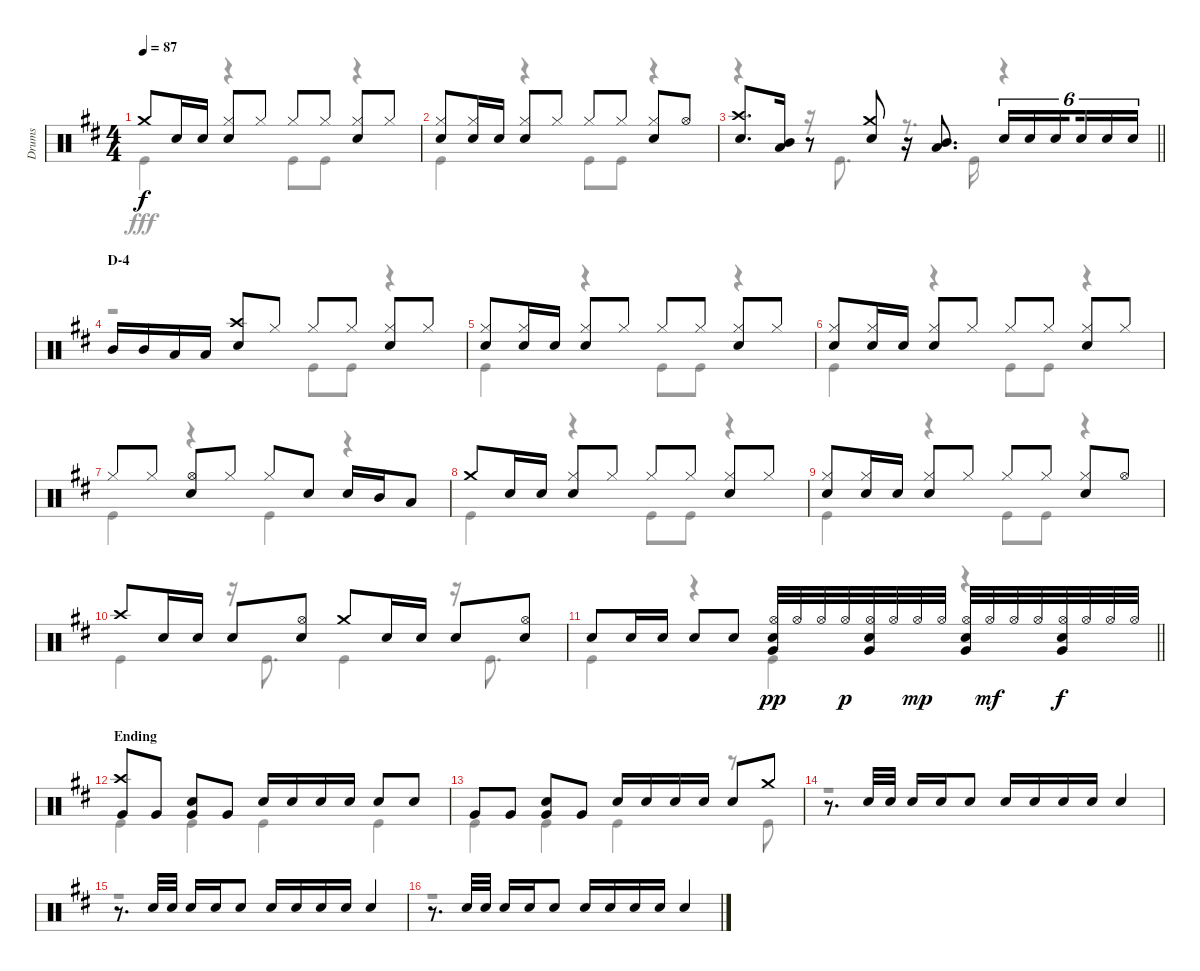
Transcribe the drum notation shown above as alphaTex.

\track ("Drums" "Drums") {instrument percussion}
\staff {score}
\articulation defaults
\voice
\ts (4 4)
\tempo 87
\clef neutral
\ks d "Crash medium (hit)".8{dy f} "Snare (hit) 2".16 "Snare (hit) 2".16
("Hi-Hat (closed)" "Snare (hit) 2").8 "Hi-Hat (closed)".8 "Hi-Hat (closed)".8 "Hi-Hat (closed)".8 ("Hi-Hat (closed)" "Snare (hit) 2").8 "Hi-Hat (closed)".8 |
("Hi-Hat (closed)" "Snare (hit) 2").8 ("Hi-Hat (closed)" "Snare (hit) 2").16 "Snare (hit) 2".16 ("Hi-Hat (closed)" "Snare (hit) 2").8 "Hi-Hat (closed)".8 "Hi-Hat (closed)".8 "Hi-Hat (closed)".8 ("Hi-Hat (closed)" "Snare (hit) 2").8 "Hi-Hat (open)".8 |
\barLineRight lightlight
("Crash high (hit)" "Snare (hit) 2").8{d} ("Mid Tom (hit)" "Low Tom (hit)").16 r.8 ("Crash medium (hit)" "Snare (hit) 2").8 r.16 ("Mid Tom (hit)" "Low Tom (hit)").8{d} "Snare (hit) 2".16{tu (6 4)} "Snare (hit) 2".16{tu (6 4)} "Snare (hit) 2".16{tu (6 4) beam splitsecondary} "Snare (hit) 2".16{tu (6 4)} "Snare (hit) 2".16{tu (6 4)} "Snare (hit) 2".16{tu (6 4)} |
\section ("" "D-4")
"Mid Tom (hit)".16 "Mid Tom (hit)".16 "Low Tom (hit)".16 "Low Tom (hit)".16 ("Crash high (hit)" "Snare (hit) 2").8 "Hi-Hat (closed)".8 "Hi-Hat (closed)".8 "Hi-Hat (closed)".8 ("Hi-Hat (closed)" "Snare (hit) 2").8 "Hi-Hat (closed)".8 |
("Hi-Hat (closed)" "Snare (hit) 2").8 ("Hi-Hat (closed)" "Snare (hit) 2").16 "Snare (hit) 2".16 ("Hi-Hat (closed)" "Snare (hit) 2").8 "Hi-Hat (closed)".8 "Hi-Hat (closed)".8 "Hi-Hat (closed)".8 ("Hi-Hat (closed)" "Snare (hit) 2").8 "Hi-Hat (closed)".8 |
("Hi-Hat (closed)" "Snare (hit) 2").8 ("Hi-Hat (closed)" "Snare (hit) 2").16 "Snare (hit) 2".16 ("Hi-Hat (closed)" "Snare (hit) 2").8 "Hi-Hat (closed)".8 "Hi-Hat (closed)".8 "Hi-Hat (closed)".8 ("Hi-Hat (closed)" "Snare (hit) 2").8 "Hi-Hat (closed)".8 |
"Hi-Hat (closed)".8 "Hi-Hat (closed)".8 ("Hi-Hat (open)" "Snare (hit) 2").8 "Hi-Hat (closed)".8 "Hi-Hat (closed)".8 "Snare (hit) 2".8 "Snare (hit) 2".16 "Mid Tom (hit)".16 "Low Tom (hit)".8 |
"Crash medium (hit)".8 "Snare (hit) 2".16 "Snare (hit) 2".16 ("Hi-Hat (closed)" "Snare (hit) 2").8 "Hi-Hat (closed)".8 "Hi-Hat (closed)".8 "Hi-Hat (closed)".8 ("Hi-Hat (closed)" "Snare (hit) 2").8 "Hi-Hat (closed)".8 |
("Hi-Hat (closed)" "Snare (hit) 2").8 ("Hi-Hat (closed)" "Snare (hit) 2").16 "Snare (hit) 2".16 ("Hi-Hat (closed)" "Snare (hit) 2").8 "Hi-Hat (closed)".8 "Hi-Hat (closed)".8 "Hi-Hat (closed)".8 ("Hi-Hat (closed)" "Snare (hit) 2").8 "Hi-Hat (open)".8 |
"Crash high (hit)".8 "Snare (hit) 2".16 "Snare (hit) 2".16 "Snare (hit) 2".8 ("Hi-Hat (open)" "Snare (hit) 2").8 "Crash medium (hit)".8 "Snare (hit) 2".16 "Snare (hit) 2".16 "Snare (hit) 2".8 ("Hi-Hat (open)" "Snare (hit) 2").8 |
\barLineRight lightlight "Snare (hit) 2".8 "Snare (hit) 2".16 "Snare (hit) 2".16 "Snare (hit) 2".8 "Snare (hit) 2".8
("Hi-Hat (open)" "Snare (hit) 2" "Very Low Tom (hit)").32{dy pp} "Hi-Hat (open)".32 "Hi-Hat (open)".32 "Hi-Hat (open)".32{dy p} ("Hi-Hat (open)" "Snare (hit) 2" "Very Low Tom (hit)").32 "Hi-Hat (open)".32 "Hi-Hat (open)".32{dy mp} "Hi-Hat (open)".32 ("Hi-Hat (open)" "Snare (hit) 2" "Very Low Tom (hit)").32 "Hi-Hat (open)".32{dy mf} "Hi-Hat (open)".32 "Hi-Hat (open)".32 ("Hi-Hat (open)" "Snare (hit) 2" "Very Low Tom (hit)").32{dy f} "Hi-Hat (open)".32 "Hi-Hat (open)".32 "Hi-Hat (open)".32 |
\section ("" "Ending")
("Crash high (hit)" "Very Low Tom (hit)").8 "Very Low Tom (hit)".8 ("Snare (hit) 2" "Very Low Tom (hit)").8 "Very Low Tom (hit)".8 "Snare (hit) 2".16 "Snare (hit) 2".16 "Snare (hit) 2".16 "Snare (hit) 2".16 "Snare (hit) 2".8 "Snare (hit) 2".8 |
"Very Low Tom (hit)".8 "Very Low Tom (hit)".8 ("Snare (hit) 2" "Very Low Tom (hit)").8 "Very Low Tom (hit)".8 "Snare (hit) 2".16 "Snare (hit) 2".16 "Snare (hit) 2".16 "Snare (hit) 2".16 "Snare (hit) 2".8 "Crash medium (hit)".8 |
r.8{d} "Snare (hit) 2".32 "Snare (hit) 2".32 "Snare (hit) 2".16 "Snare (hit) 2".16 "Snare (hit) 2".8 "Snare (hit) 2".16 "Snare (hit) 2".16 "Snare (hit) 2".16 "Snare (hit) 2".16 "Snare (hit) 2".4 |
r.8{d volume 0} "Snare (hit) 2".32 "Snare (hit) 2".32 "Snare (hit) 2".16 "Snare (hit) 2".16 "Snare (hit) 2".8 "Snare (hit) 2".16 "Snare (hit) 2".16 "Snare (hit) 2".16 "Snare (hit) 2".16 "Snare (hit) 2".4 |
r.8{d} "Snare (hit) 2".32 "Snare (hit) 2".32 "Snare (hit) 2".16 "Snare (hit) 2".16 "Snare (hit) 2".8 "Snare (hit) 2".16 "Snare (hit) 2".16 "Snare (hit) 2".16 "Snare (hit) 2".16 "Snare (hit) 2".4
\voice
\clef neutral
\ottava regular
\simile none
\ks d "Kick (hit)".4{dy fff}
r.4 "Kick (hit)".8 "Kick (hit)".8 r.4 |
"Kick (hit)".4 r.4 "Kick (hit)".8 "Kick (hit)".8 r.4 |
\barLineRight lightlight
r.4 r.16 "Kick (hit)".8{d} r.8{d} "Kick (hit)".16 r.4 |
r.2 "Kick (hit)".8 "Kick (hit)".8 r.4 |
"Kick (hit)".4 r.4 "Kick (hit)".8 "Kick (hit)".8 r.4 |
"Kick (hit)".4 r.4 "Kick (hit)".8 "Kick (hit)".8 r.4 |
"Kick (hit)".4 r.4 "Kick (hit)".4 r.4 |
"Kick (hit)".4 r.4 "Kick (hit)".8 "Kick (hit)".8 r.4 |
"Kick (hit)".4 r.4 "Kick (hit)".8 "Kick (hit)".8 r.4 |
"Kick (hit)".4 r.16 "Kick (hit)".8{d} "Kick (hit)".4 r.16 "Kick (hit)".8{d} |
\barLineRight lightlight "Kick (hit)".4
r.4 "Kick (hit)".4 r.4 |
"Kick (hit)".4 "Kick (hit)".4 "Kick (hit)".4 "Kick (hit)".4 |
"Kick (hit)".4 "Kick (hit)".4 "Kick (hit)".4 r.8 "Kick (hit)".8 |
r.1 |
r.1 |
r.1
